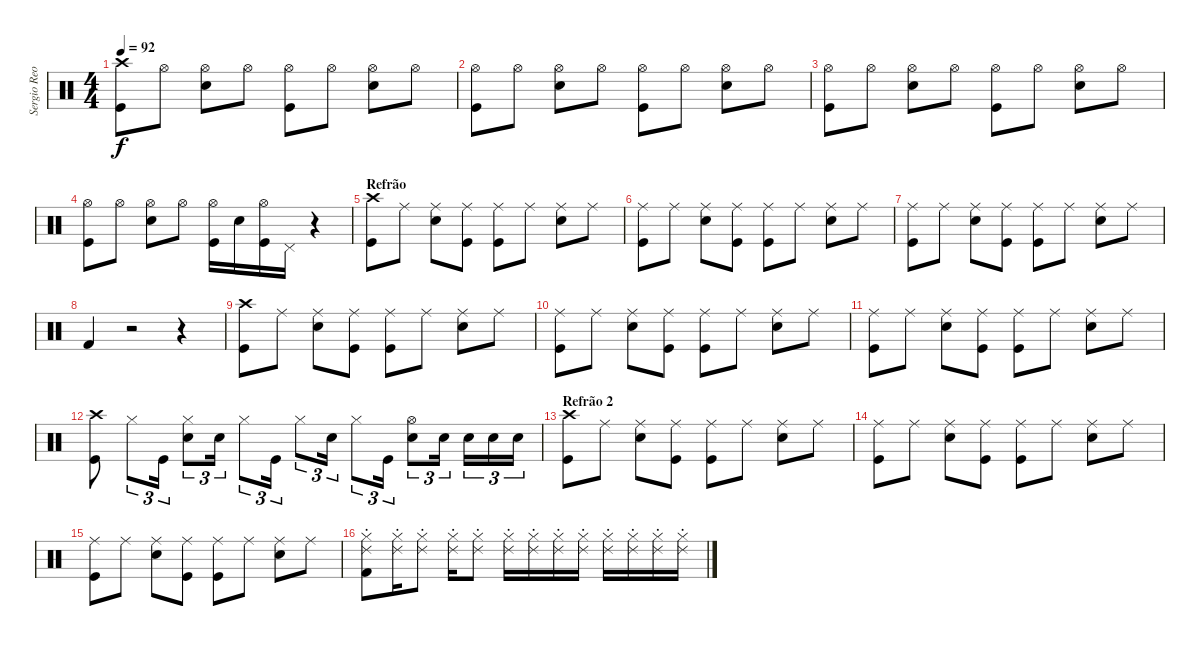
\track ("Sergio Reoli" "Sergio Reo") {instrument percussion}
\staff {score}
\articulation defaults
\ts (4 4)
\tempo 92
\clef neutral
\ks c
("Crash high (hit)" "Kick (hit)").8{dy f} "Hi-Hat (open)".8 ("Hi-Hat (open)" "Electric Snare (hit)").8 "Hi-Hat (open)".8 ("Hi-Hat (open)" "Kick (hit)").8 "Hi-Hat (open)".8 ("Hi-Hat (open)" "Electric Snare (hit)").8 "Hi-Hat (open)".8 |
("Hi-Hat (open)" "Kick (hit)").8 "Hi-Hat (open)".8 ("Hi-Hat (open)" "Electric Snare (hit)").8 "Hi-Hat (open)".8 ("Hi-Hat (open)" "Kick (hit)").8 "Hi-Hat (open)".8 ("Hi-Hat (open)" "Electric Snare (hit)").8 "Hi-Hat (open)".8 |
("Hi-Hat (open)" "Kick (hit)").8 "Hi-Hat (open)".8 ("Hi-Hat (open)" "Electric Snare (hit)").8 "Hi-Hat (open)".8 ("Hi-Hat (open)" "Kick (hit)").8 "Hi-Hat (open)".8 ("Hi-Hat (open)" "Electric Snare (hit)").8 "Hi-Hat (open)".8 |
("Hi-Hat (open)" "Kick (hit)").8 "Hi-Hat (open)".8 ("Hi-Hat (open)" "Electric Snare (hit)").8 "Hi-Hat (open)".8 ("Hi-Hat (open)" "Kick (hit)").16 "Electric Snare (hit)".16 ("Hi-Hat (open)" "Kick (hit)").16 "Pedal Hi-Hat (hit)".16 r.4 |
\section ("" "Refrão")
("Crash high (hit)" "Kick (hit)").8 "Ride (middle)".8 ("Ride (middle)" "Electric Snare (hit)").8 ("Ride (middle)" "Kick (hit)").8 ("Ride (middle)" "Kick (hit)").8 "Ride (middle)".8 ("Ride (middle)" "Electric Snare (hit)").8 "Ride (middle)".8 |
("Ride (middle)" "Kick (hit)").8 "Ride (middle)".8 ("Ride (middle)" "Electric Snare (hit)").8 ("Ride (middle)" "Kick (hit)").8 ("Ride (middle)" "Kick (hit)").8 "Ride (middle)".8 ("Ride (middle)" "Electric Snare (hit)").8 "Ride (middle)".8 |
("Ride (middle)" "Kick (hit)").8 "Ride (middle)".8 ("Ride (middle)" "Electric Snare (hit)").8 ("Ride (middle)" "Kick (hit)").8 ("Ride (middle)" "Kick (hit)").8 "Ride (middle)".8 ("Ride (middle)" "Electric Snare (hit)").8 "Ride (middle)".8 |
"Kick (hit) 2".4 r.2 r.4 |
("Crash high (hit)" "Kick (hit)").8 "Ride (middle)".8 ("Ride (middle)" "Electric Snare (hit)").8 ("Ride (middle)" "Kick (hit)").8 ("Ride (middle)" "Kick (hit)").8 "Ride (middle)".8 ("Ride (middle)" "Electric Snare (hit)").8 "Ride (middle)".8 |
("Ride (middle)" "Kick (hit)").8 "Ride (middle)".8 ("Ride (middle)" "Electric Snare (hit)").8 ("Ride (middle)" "Kick (hit)").8 ("Ride (middle)" "Kick (hit)").8 "Ride (middle)".8 ("Ride (middle)" "Electric Snare (hit)").8 "Ride (middle)".8 |
("Ride (middle)" "Kick (hit)").8 "Ride (middle)".8 ("Ride (middle)" "Electric Snare (hit)").8 ("Ride (middle)" "Kick (hit)").8 ("Ride (middle)" "Kick (hit)").8 "Ride (middle)".8 ("Ride (middle)" "Electric Snare (hit)").8 "Ride (middle)".8 |
("Crash high (hit)" "Kick (hit)").8 "Hi-Hat (closed)".8{tu (3 2)} "Kick (hit)".16{tu (3 2)} ("Hi-Hat (closed)" "Electric Snare (hit)").8{tu (3 2)} "Electric Snare (hit)".16{tu (3 2)} "Hi-Hat (closed)".8{tu (3 2)} "Kick (hit)".16{tu (3 2)} "Hi-Hat (closed)".8{tu (3 2)} "Electric Snare (hit)".16{tu (3 2)} "Hi-Hat (closed)".8{tu (3 2)} "Kick (hit)".16{tu (3 2)} ("Hi-Hat (open)" "Electric Snare (hit)").8{tu (3 2)} "Electric Snare (hit)".16{tu (3 2)} "Electric Snare (hit)".16{tu (3 2)} "Electric Snare (hit)".16{tu (3 2)} "Electric Snare (hit)".16{tu (3 2)} |
\section ("" "Refrão 2")
("Crash high (hit)" "Kick (hit)").8 "Ride (middle)".8 ("Ride (middle)" "Electric Snare (hit)").8 ("Ride (middle)" "Kick (hit)").8 ("Ride (middle)" "Kick (hit)").8 "Ride (middle)".8 ("Ride (middle)" "Electric Snare (hit)").8 "Ride (middle)".8 |
("Ride (middle)" "Kick (hit)").8 "Ride (middle)".8 ("Ride (middle)" "Electric Snare (hit)").8 ("Ride (middle)" "Kick (hit)").8 ("Ride (middle)" "Kick (hit)").8 "Ride (middle)".8 ("Ride (middle)" "Electric Snare (hit)").8 "Ride (middle)".8 |
("Ride (middle)" "Kick (hit)").8 "Ride (middle)".8 ("Ride (middle)" "Electric Snare (hit)").8 ("Ride (middle)" "Kick (hit)").8 ("Ride (middle)" "Kick (hit)").8 "Ride (middle)".8 ("Ride (middle)" "Electric Snare (hit)").8 "Ride (middle)".8 |
("Hi-Hat (closed)" "Ride (choke) 2" "Kick (hit) 2").8 ("Hi-Hat (closed)" "Ride (choke) 2").16 ("Hi-Hat (closed)" "Ride (choke) 2").8 ("Hi-Hat (closed)" "Ride (choke) 2").16 ("Hi-Hat (closed)" "Ride (choke) 2").8 ("Hi-Hat (closed)" "Ride (choke) 2").16 ("Hi-Hat (closed)" "Ride (choke) 2").16 ("Hi-Hat (closed)" "Ride (choke) 2").16 ("Hi-Hat (closed)" "Ride (choke) 2").16 ("Hi-Hat (closed)" "Ride (choke) 2").16 ("Hi-Hat (closed)" "Ride (choke) 2").16 ("Hi-Hat (closed)" "Ride (choke) 2").16 ("Hi-Hat (closed)" "Ride (choke) 2").16
